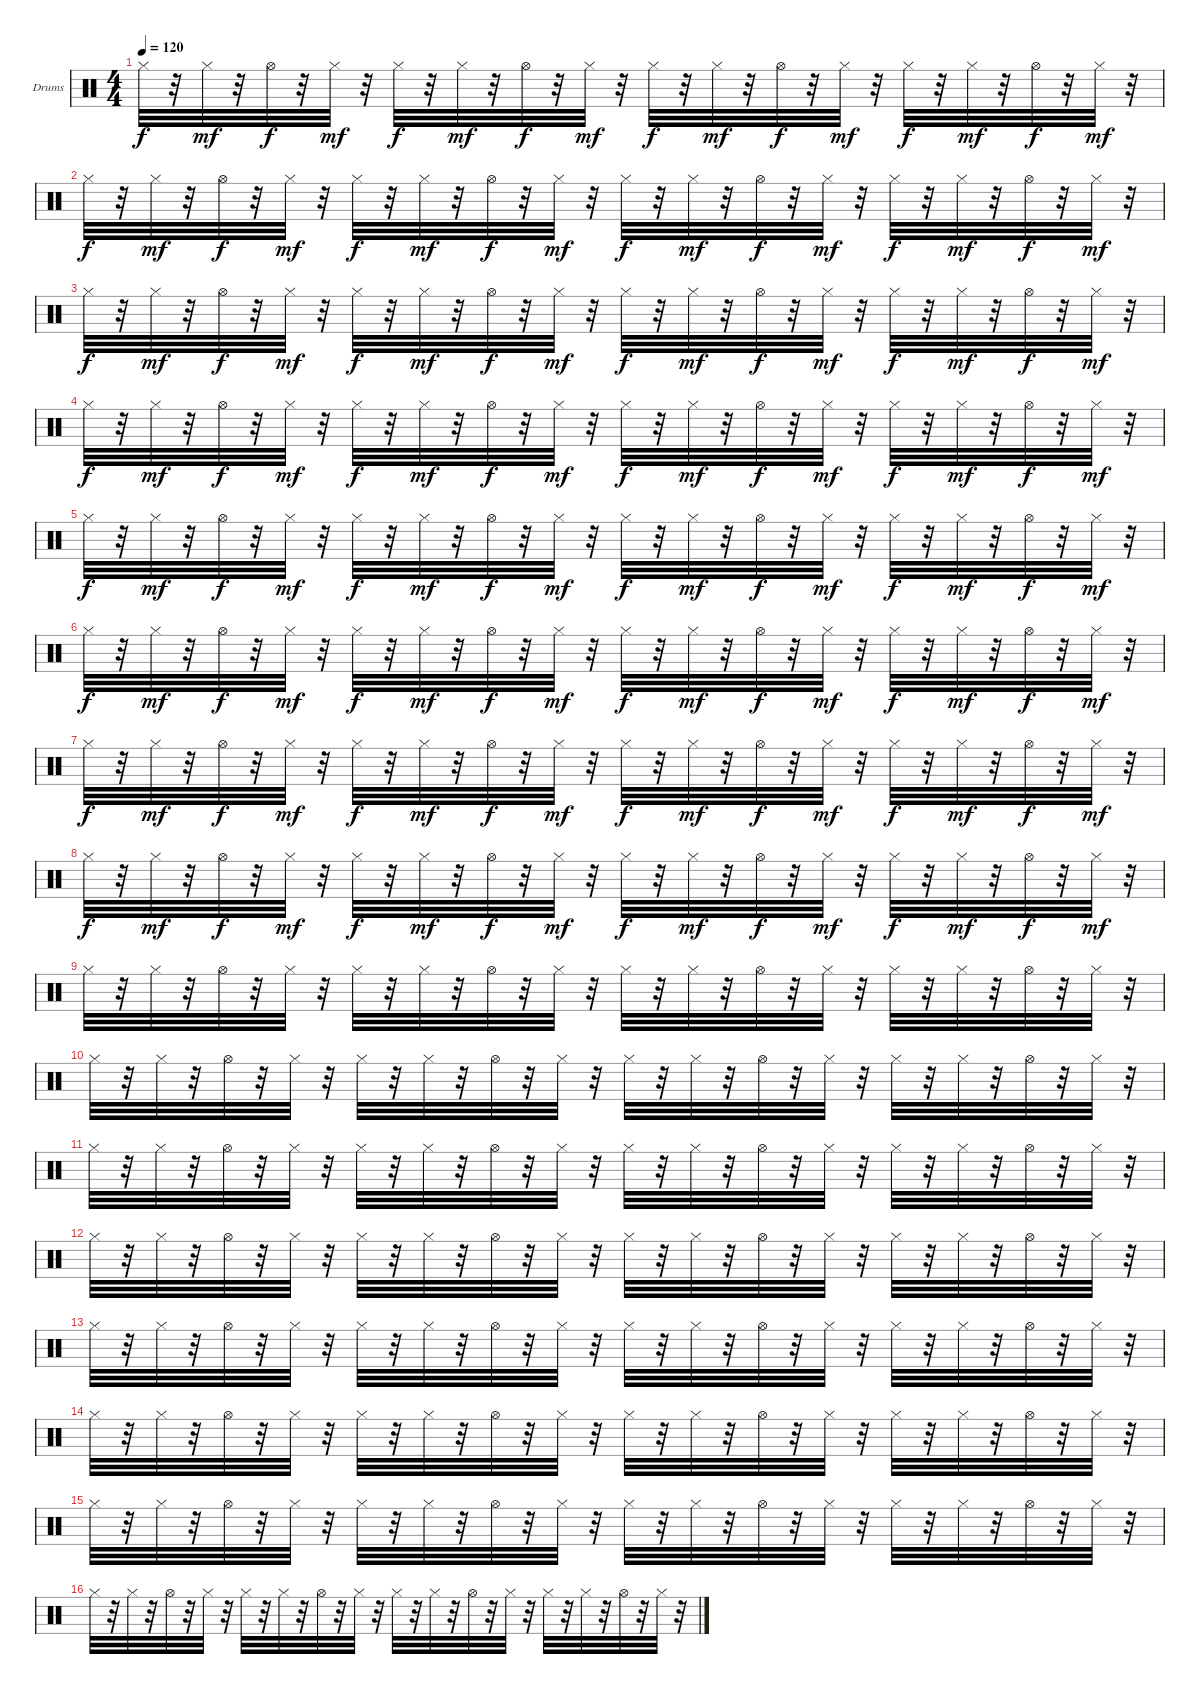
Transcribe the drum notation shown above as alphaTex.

\defaultSystemsLayout 4
\bracketExtendMode groupsimilarinstruments
\firstSystemTrackNameOrientation horizontal
\otherSystemsTrackNameOrientation horizontal
\track ("Drumkit" "Drums") {instrument percussion}
\staff {score}
\articulation defaults
\ts (4 4)
\tempo 120
\clef neutral
\ks c "Hi-Hat (closed)".32{dy f}
r.32 "Hi-Hat (closed)".32{dy mf} r.32 "Hi-Hat (open)".32{dy f} r.32 "Hi-Hat (closed)".32{dy mf} r.32 "Hi-Hat (closed)".32{dy f} r.32 "Hi-Hat (closed)".32{dy mf} r.32 "Hi-Hat (open)".32{dy f} r.32 "Hi-Hat (closed)".32{dy mf} r.32 "Hi-Hat (closed)".32{dy f} r.32 "Hi-Hat (closed)".32{dy mf} r.32 "Hi-Hat (open)".32{dy f} r.32 "Hi-Hat (closed)".32{dy mf} r.32 "Hi-Hat (closed)".32{dy f} r.32 "Hi-Hat (closed)".32{dy mf} r.32 "Hi-Hat (open)".32{dy f} r.32 "Hi-Hat (closed)".32{dy mf} r.32 |
"Hi-Hat (closed)".32{dy f} r.32 "Hi-Hat (closed)".32{dy mf} r.32 "Hi-Hat (open)".32{dy f} r.32 "Hi-Hat (closed)".32{dy mf} r.32 "Hi-Hat (closed)".32{dy f} r.32 "Hi-Hat (closed)".32{dy mf} r.32 "Hi-Hat (open)".32{dy f} r.32 "Hi-Hat (closed)".32{dy mf} r.32 "Hi-Hat (closed)".32{dy f} r.32 "Hi-Hat (closed)".32{dy mf} r.32 "Hi-Hat (open)".32{dy f} r.32 "Hi-Hat (closed)".32{dy mf} r.32 "Hi-Hat (closed)".32{dy f} r.32 "Hi-Hat (closed)".32{dy mf} r.32 "Hi-Hat (open)".32{dy f} r.32 "Hi-Hat (closed)".32{dy mf} r.32 |
"Hi-Hat (closed)".32{dy f} r.32 "Hi-Hat (closed)".32{dy mf} r.32 "Hi-Hat (open)".32{dy f} r.32 "Hi-Hat (closed)".32{dy mf} r.32 "Hi-Hat (closed)".32{dy f} r.32 "Hi-Hat (closed)".32{dy mf} r.32 "Hi-Hat (open)".32{dy f} r.32 "Hi-Hat (closed)".32{dy mf} r.32 "Hi-Hat (closed)".32{dy f} r.32 "Hi-Hat (closed)".32{dy mf} r.32 "Hi-Hat (open)".32{dy f} r.32 "Hi-Hat (closed)".32{dy mf} r.32 "Hi-Hat (closed)".32{dy f} r.32 "Hi-Hat (closed)".32{dy mf} r.32 "Hi-Hat (open)".32{dy f} r.32 "Hi-Hat (closed)".32{dy mf} r.32 |
"Hi-Hat (closed)".32{dy f} r.32 "Hi-Hat (closed)".32{dy mf} r.32 "Hi-Hat (open)".32{dy f} r.32 "Hi-Hat (closed)".32{dy mf} r.32 "Hi-Hat (closed)".32{dy f} r.32 "Hi-Hat (closed)".32{dy mf} r.32 "Hi-Hat (open)".32{dy f} r.32 "Hi-Hat (closed)".32{dy mf} r.32 "Hi-Hat (closed)".32{dy f} r.32 "Hi-Hat (closed)".32{dy mf} r.32 "Hi-Hat (open)".32{dy f} r.32 "Hi-Hat (closed)".32{dy mf} r.32 "Hi-Hat (closed)".32{dy f} r.32 "Hi-Hat (closed)".32{dy mf} r.32 "Hi-Hat (open)".32{dy f} r.32 "Hi-Hat (closed)".32{dy mf} r.32 |
"Hi-Hat (closed)".32{dy f} r.32 "Hi-Hat (closed)".32{dy mf} r.32 "Hi-Hat (open)".32{dy f} r.32 "Hi-Hat (closed)".32{dy mf} r.32 "Hi-Hat (closed)".32{dy f} r.32 "Hi-Hat (closed)".32{dy mf} r.32 "Hi-Hat (open)".32{dy f} r.32 "Hi-Hat (closed)".32{dy mf} r.32 "Hi-Hat (closed)".32{dy f} r.32 "Hi-Hat (closed)".32{dy mf} r.32 "Hi-Hat (open)".32{dy f} r.32 "Hi-Hat (closed)".32{dy mf} r.32 "Hi-Hat (closed)".32{dy f} r.32 "Hi-Hat (closed)".32{dy mf} r.32 "Hi-Hat (open)".32{dy f} r.32 "Hi-Hat (closed)".32{dy mf} r.32 |
"Hi-Hat (closed)".32{dy f} r.32 "Hi-Hat (closed)".32{dy mf} r.32 "Hi-Hat (open)".32{dy f} r.32 "Hi-Hat (closed)".32{dy mf} r.32 "Hi-Hat (closed)".32{dy f} r.32 "Hi-Hat (closed)".32{dy mf} r.32 "Hi-Hat (open)".32{dy f} r.32 "Hi-Hat (closed)".32{dy mf} r.32 "Hi-Hat (closed)".32{dy f} r.32 "Hi-Hat (closed)".32{dy mf} r.32 "Hi-Hat (open)".32{dy f} r.32 "Hi-Hat (closed)".32{dy mf} r.32 "Hi-Hat (closed)".32{dy f} r.32 "Hi-Hat (closed)".32{dy mf} r.32 "Hi-Hat (open)".32{dy f} r.32 "Hi-Hat (closed)".32{dy mf} r.32 |
"Hi-Hat (closed)".32{dy f} r.32 "Hi-Hat (closed)".32{dy mf} r.32 "Hi-Hat (open)".32{dy f} r.32 "Hi-Hat (closed)".32{dy mf} r.32 "Hi-Hat (closed)".32{dy f} r.32 "Hi-Hat (closed)".32{dy mf} r.32 "Hi-Hat (open)".32{dy f} r.32 "Hi-Hat (closed)".32{dy mf} r.32 "Hi-Hat (closed)".32{dy f} r.32 "Hi-Hat (closed)".32{dy mf} r.32 "Hi-Hat (open)".32{dy f} r.32 "Hi-Hat (closed)".32{dy mf} r.32 "Hi-Hat (closed)".32{dy f} r.32 "Hi-Hat (closed)".32{dy mf} r.32 "Hi-Hat (open)".32{dy f} r.32 "Hi-Hat (closed)".32{dy mf} r.32 |
"Hi-Hat (closed)".32{dy f} r.32 "Hi-Hat (closed)".32{dy mf} r.32 "Hi-Hat (open)".32{dy f} r.32 "Hi-Hat (closed)".32{dy mf} r.32 "Hi-Hat (closed)".32{dy f} r.32 "Hi-Hat (closed)".32{dy mf} r.32 "Hi-Hat (open)".32{dy f} r.32 "Hi-Hat (closed)".32{dy mf} r.32 "Hi-Hat (closed)".32{dy f} r.32 "Hi-Hat (closed)".32{dy mf} r.32 "Hi-Hat (open)".32{dy f} r.32 "Hi-Hat (closed)".32{dy mf} r.32 "Hi-Hat (closed)".32{dy f} r.32 "Hi-Hat (closed)".32{dy mf} r.32 "Hi-Hat (open)".32{dy f} r.32 "Hi-Hat (closed)".32{dy mf} r.32 |
"Hi-Hat (closed)".32 r.32 "Hi-Hat (closed)".32 r.32 "Hi-Hat (open)".32 r.32 "Hi-Hat (closed)".32 r.32 "Hi-Hat (closed)".32 r.32 "Hi-Hat (closed)".32 r.32 "Hi-Hat (open)".32 r.32 "Hi-Hat (closed)".32 r.32 "Hi-Hat (closed)".32 r.32 "Hi-Hat (closed)".32 r.32 "Hi-Hat (open)".32 r.32 "Hi-Hat (closed)".32 r.32 "Hi-Hat (closed)".32 r.32 "Hi-Hat (closed)".32 r.32 "Hi-Hat (open)".32 r.32 "Hi-Hat (closed)".32 r.32 |
"Hi-Hat (closed)".32 r.32 "Hi-Hat (closed)".32 r.32 "Hi-Hat (open)".32 r.32 "Hi-Hat (closed)".32 r.32 "Hi-Hat (closed)".32 r.32 "Hi-Hat (closed)".32 r.32 "Hi-Hat (open)".32 r.32 "Hi-Hat (closed)".32 r.32 "Hi-Hat (closed)".32 r.32 "Hi-Hat (closed)".32 r.32 "Hi-Hat (open)".32 r.32 "Hi-Hat (closed)".32 r.32 "Hi-Hat (closed)".32 r.32 "Hi-Hat (closed)".32 r.32 "Hi-Hat (open)".32 r.32 "Hi-Hat (closed)".32 r.32 |
"Hi-Hat (closed)".32 r.32 "Hi-Hat (closed)".32 r.32 "Hi-Hat (open)".32 r.32 "Hi-Hat (closed)".32 r.32 "Hi-Hat (closed)".32 r.32 "Hi-Hat (closed)".32 r.32 "Hi-Hat (open)".32 r.32 "Hi-Hat (closed)".32 r.32 "Hi-Hat (closed)".32 r.32 "Hi-Hat (closed)".32 r.32 "Hi-Hat (open)".32 r.32 "Hi-Hat (closed)".32 r.32 "Hi-Hat (closed)".32 r.32 "Hi-Hat (closed)".32 r.32 "Hi-Hat (open)".32 r.32 "Hi-Hat (closed)".32 r.32 |
"Hi-Hat (closed)".32 r.32 "Hi-Hat (closed)".32 r.32 "Hi-Hat (open)".32 r.32 "Hi-Hat (closed)".32 r.32 "Hi-Hat (closed)".32 r.32 "Hi-Hat (closed)".32 r.32 "Hi-Hat (open)".32 r.32 "Hi-Hat (closed)".32 r.32 "Hi-Hat (closed)".32 r.32 "Hi-Hat (closed)".32 r.32 "Hi-Hat (open)".32 r.32 "Hi-Hat (closed)".32 r.32 "Hi-Hat (closed)".32 r.32 "Hi-Hat (closed)".32 r.32 "Hi-Hat (open)".32 r.32 "Hi-Hat (closed)".32 r.32 |
"Hi-Hat (closed)".32 r.32 "Hi-Hat (closed)".32 r.32 "Hi-Hat (open)".32 r.32 "Hi-Hat (closed)".32 r.32 "Hi-Hat (closed)".32 r.32 "Hi-Hat (closed)".32 r.32 "Hi-Hat (open)".32 r.32 "Hi-Hat (closed)".32 r.32 "Hi-Hat (closed)".32 r.32 "Hi-Hat (closed)".32 r.32 "Hi-Hat (open)".32 r.32 "Hi-Hat (closed)".32 r.32 "Hi-Hat (closed)".32 r.32 "Hi-Hat (closed)".32 r.32 "Hi-Hat (open)".32 r.32 "Hi-Hat (closed)".32 r.32 |
"Hi-Hat (closed)".32 r.32 "Hi-Hat (closed)".32 r.32 "Hi-Hat (open)".32 r.32 "Hi-Hat (closed)".32 r.32 "Hi-Hat (closed)".32 r.32 "Hi-Hat (closed)".32 r.32 "Hi-Hat (open)".32 r.32 "Hi-Hat (closed)".32 r.32 "Hi-Hat (closed)".32 r.32 "Hi-Hat (closed)".32 r.32 "Hi-Hat (open)".32 r.32 "Hi-Hat (closed)".32 r.32 "Hi-Hat (closed)".32 r.32 "Hi-Hat (closed)".32 r.32 "Hi-Hat (open)".32 r.32 "Hi-Hat (closed)".32 r.32 |
"Hi-Hat (closed)".32 r.32 "Hi-Hat (closed)".32 r.32 "Hi-Hat (open)".32 r.32 "Hi-Hat (closed)".32 r.32 "Hi-Hat (closed)".32 r.32 "Hi-Hat (closed)".32 r.32 "Hi-Hat (open)".32 r.32 "Hi-Hat (closed)".32 r.32 "Hi-Hat (closed)".32 r.32 "Hi-Hat (closed)".32 r.32 "Hi-Hat (open)".32 r.32 "Hi-Hat (closed)".32 r.32 "Hi-Hat (closed)".32 r.32 "Hi-Hat (closed)".32 r.32 "Hi-Hat (open)".32 r.32 "Hi-Hat (closed)".32 r.32 |
"Hi-Hat (closed)".32 r.32 "Hi-Hat (closed)".32 r.32 "Hi-Hat (open)".32 r.32 "Hi-Hat (closed)".32 r.32 "Hi-Hat (closed)".32 r.32 "Hi-Hat (closed)".32 r.32 "Hi-Hat (open)".32 r.32 "Hi-Hat (closed)".32 r.32 "Hi-Hat (closed)".32 r.32 "Hi-Hat (closed)".32 r.32 "Hi-Hat (open)".32 r.32 "Hi-Hat (closed)".32 r.32 "Hi-Hat (closed)".32 r.32 "Hi-Hat (closed)".32 r.32 "Hi-Hat (open)".32 r.32 "Hi-Hat (closed)".32 r.32
